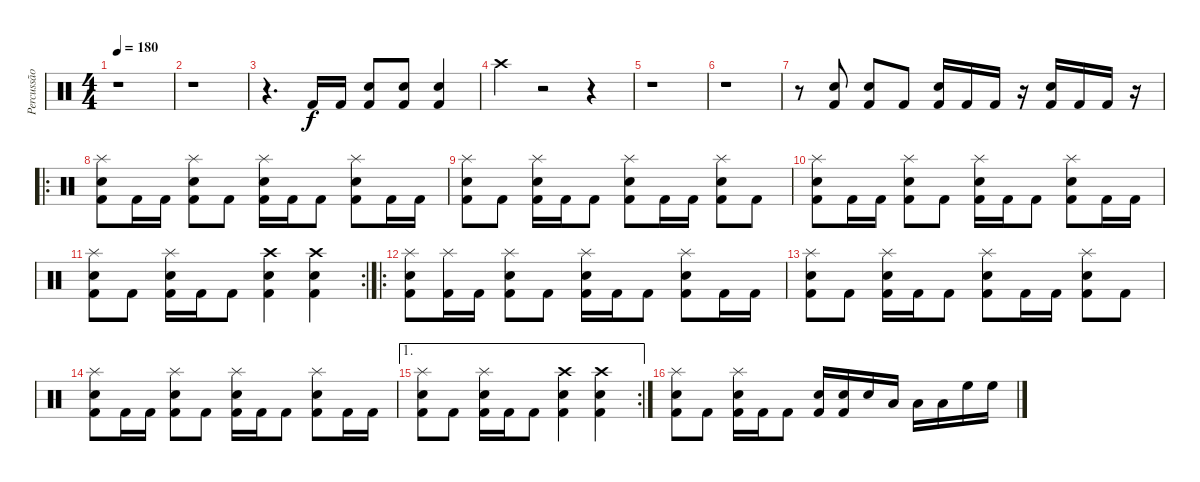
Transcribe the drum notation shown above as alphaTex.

\track ("Percussão" "Percussão") {instrument percussion}
\staff {score}
\articulation defaults
\ts (4 4)
\tempo 180
\clef neutral
\ks c
r.1{dy f} |
r.1 |
r.4{d} "Kick (hit) 2".16 "Kick (hit) 2".16 ("Kick (hit) 2" "Snare (hit) 2").8 ("Kick (hit) 2" "Snare (hit) 2").8 ("Kick (hit) 2" "Snare (hit) 2").4 |
"Crash high (hit)".4 r.2 r.4 |
r.1 |
r.1 |
r.8 ("Kick (hit) 2" "Snare (hit) 2").8 ("Kick (hit) 2" "Snare (hit) 2").8 "Kick (hit) 2".8 ("Kick (hit) 2" "Snare (hit) 2").16 "Kick (hit) 2".16 "Kick (hit) 2".16 r.16 ("Kick (hit) 2" "Snare (hit) 2").16 "Kick (hit) 2".16 "Kick (hit) 2".16 r.16 |
\ro
("Kick (hit) 2" "Snare (hit) 2" "Splash (hit)").8 "Kick (hit) 2".16 "Kick (hit) 2".16 ("Kick (hit) 2" "Snare (hit) 2" "Splash (hit)").8 "Kick (hit) 2".8 ("Kick (hit) 2" "Snare (hit) 2" "Splash (hit)").16 "Kick (hit) 2".16 "Kick (hit) 2".8 ("Kick (hit) 2" "Snare (hit) 2" "Splash (hit)").8 "Kick (hit) 2".16 "Kick (hit) 2".16 |
("Kick (hit) 2" "Snare (hit) 2" "Splash (hit)").8 "Kick (hit) 2".8 ("Kick (hit) 2" "Snare (hit) 2" "Splash (hit)").16 "Kick (hit) 2".16 "Kick (hit) 2".8 ("Kick (hit) 2" "Snare (hit) 2" "Splash (hit)").8 "Kick (hit) 2".16 "Kick (hit) 2".16 ("Kick (hit) 2" "Snare (hit) 2" "Splash (hit)").8 "Kick (hit) 2".8 |
("Kick (hit) 2" "Snare (hit) 2" "Splash (hit)").8 "Kick (hit) 2".16 "Kick (hit) 2".16 ("Kick (hit) 2" "Snare (hit) 2" "Splash (hit)").8 "Kick (hit) 2".8 ("Kick (hit) 2" "Snare (hit) 2" "Splash (hit)").16 "Kick (hit) 2".16 "Kick (hit) 2".8 ("Kick (hit) 2" "Snare (hit) 2" "Splash (hit)").8 "Kick (hit) 2".16 "Kick (hit) 2".16 |
\rc 2
("Kick (hit) 2" "Snare (hit) 2" "Splash (hit)").8 "Kick (hit) 2".8 ("Kick (hit) 2" "Snare (hit) 2" "Splash (hit)").16 "Kick (hit) 2".16 "Kick (hit) 2".8 ("Kick (hit) 2" "Snare (hit) 2" "Crash high (hit)").4 ("Kick (hit) 2" "Snare (hit) 2" "Crash high (hit)").4 |
\ro
("Kick (hit) 2" "Snare (hit) 2" "Splash (hit)").8 ("Kick (hit) 2" "Splash (hit)").16 "Kick (hit) 2".16 ("Kick (hit) 2" "Snare (hit) 2" "Splash (hit)").8 "Kick (hit) 2".8 ("Kick (hit) 2" "Snare (hit) 2" "Splash (hit)").16 "Kick (hit) 2".16 "Kick (hit) 2".8 ("Kick (hit) 2" "Snare (hit) 2" "Splash (hit)").8 "Kick (hit) 2".16 "Kick (hit) 2".16 |
("Kick (hit) 2" "Snare (hit) 2" "Splash (hit)").8 "Kick (hit) 2".8 ("Kick (hit) 2" "Snare (hit) 2" "Splash (hit)").16 "Kick (hit) 2".16 "Kick (hit) 2".8 ("Kick (hit) 2" "Snare (hit) 2" "Splash (hit)").8 "Kick (hit) 2".16 "Kick (hit) 2".16 ("Kick (hit) 2" "Snare (hit) 2" "Splash (hit)").8 "Kick (hit) 2".8 |
("Kick (hit) 2" "Snare (hit) 2" "Splash (hit)").8 "Kick (hit) 2".16 "Kick (hit) 2".16 ("Kick (hit) 2" "Snare (hit) 2" "Splash (hit)").8 "Kick (hit) 2".8 ("Kick (hit) 2" "Snare (hit) 2" "Splash (hit)").16 "Kick (hit) 2".16 "Kick (hit) 2".8 ("Kick (hit) 2" "Snare (hit) 2" "Splash (hit)").8 "Kick (hit) 2".16 "Kick (hit) 2".16 |
\ae 1
\rc 2
("Kick (hit) 2" "Snare (hit) 2" "Splash (hit)").8 "Kick (hit) 2".8 ("Kick (hit) 2" "Snare (hit) 2" "Splash (hit)").16 "Kick (hit) 2".16 "Kick (hit) 2".8 ("Kick (hit) 2" "Snare (hit) 2" "Crash high (hit)").4 ("Kick (hit) 2" "Snare (hit) 2" "Crash high (hit)").4 |
("Kick (hit) 2" "Snare (hit) 2" "Splash (hit)").8 "Kick (hit) 2".8 ("Kick (hit) 2" "Snare (hit) 2" "Splash (hit)").16 "Kick (hit) 2".16 "Kick (hit) 2".8 ("Kick (hit) 2" "Snare (hit) 2").16 ("Kick (hit) 2" "Snare (hit) 2").16 "Snare (hit) 2".16 "Low Tom (hit)".16 "Low Tom (hit)".16 "Low Tom (hit)".16 "High Floor Tom (hit)".16 "High Floor Tom (hit)".16
